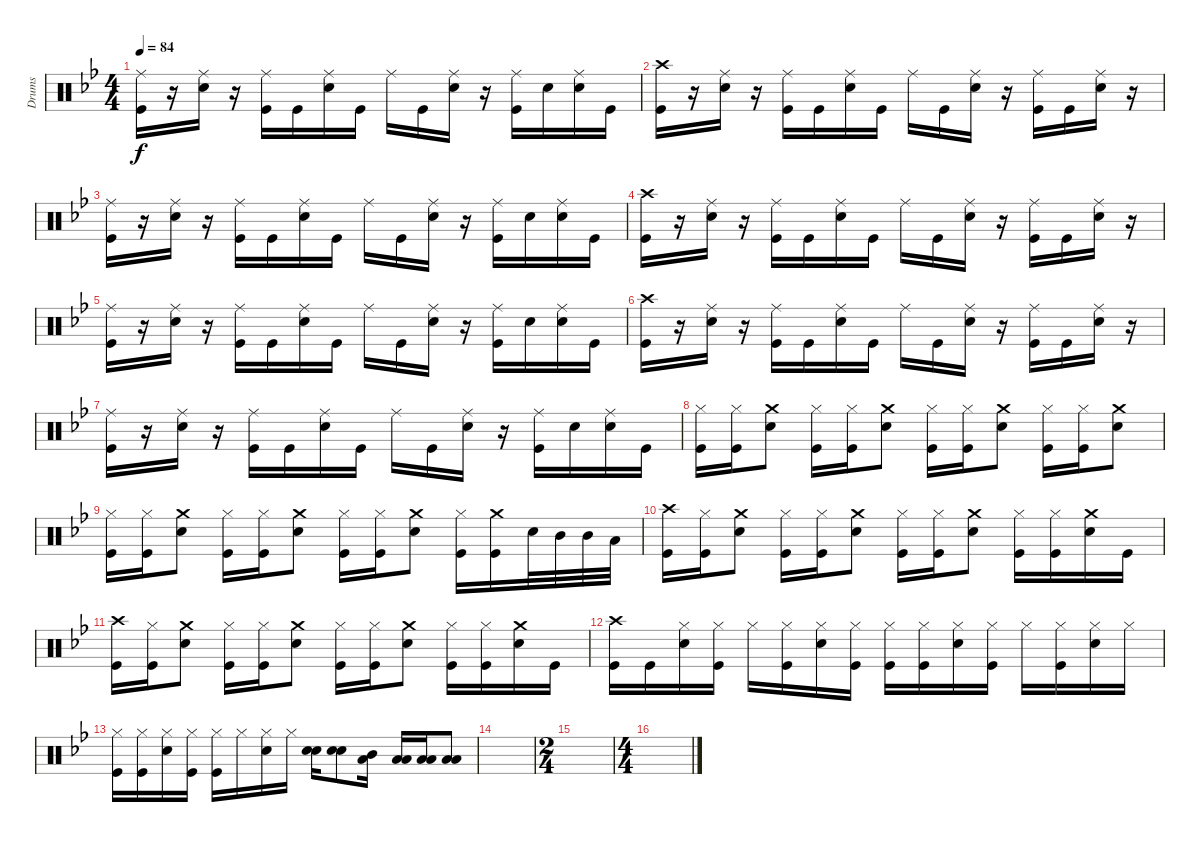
\track ("Drums" "Drums") {instrument percussion}
\staff {score}
\articulation defaults
\ts (4 4)
\tempo 84
\clef neutral
\ks bb
("Ride (middle)" "Kick (hit)").16{dy f} r.16 ("Ride (middle)" "Electric Snare (hit)").16 r.16 ("Ride (middle)" "Kick (hit)").16 "Kick (hit)".16 ("Ride (middle)" "Electric Snare (hit)").16 "Kick (hit)".16 "Ride (middle)".16 "Kick (hit)".16 ("Ride (middle)" "Electric Snare (hit)").16 r.16 ("Ride (middle)" "Kick (hit)").16 "Electric Snare (hit)".16 ("Ride (middle)" "Electric Snare (hit)").16 "Kick (hit)".16 |
("Crash high (hit)" "Kick (hit)").16 r.16 ("Ride (middle)" "Electric Snare (hit)").16 r.16 ("Ride (middle)" "Kick (hit)").16 "Kick (hit)".16 ("Ride (middle)" "Electric Snare (hit)").16 "Kick (hit)".16 "Ride (middle)".16 "Kick (hit)".16 ("Ride (middle)" "Electric Snare (hit)").16 r.16 ("Ride (middle)" "Kick (hit)").16 "Kick (hit)".16 ("Ride (middle)" "Electric Snare (hit)").16 r.16 |
("Ride (middle)" "Kick (hit)").16 r.16 ("Ride (middle)" "Electric Snare (hit)").16 r.16 ("Ride (middle)" "Kick (hit)").16 "Kick (hit)".16 ("Ride (middle)" "Electric Snare (hit)").16 "Kick (hit)".16 "Ride (middle)".16 "Kick (hit)".16 ("Ride (middle)" "Electric Snare (hit)").16 r.16 ("Ride (middle)" "Kick (hit)").16 "Electric Snare (hit)".16 ("Ride (middle)" "Electric Snare (hit)").16 "Kick (hit)".16 |
("Crash high (hit)" "Kick (hit)").16 r.16 ("Ride (middle)" "Electric Snare (hit)").16 r.16 ("Ride (middle)" "Kick (hit)").16 "Kick (hit)".16 ("Ride (middle)" "Electric Snare (hit)").16 "Kick (hit)".16 "Ride (middle)".16 "Kick (hit)".16 ("Ride (middle)" "Electric Snare (hit)").16 r.16 ("Ride (middle)" "Kick (hit)").16 "Kick (hit)".16 ("Ride (middle)" "Electric Snare (hit)").16 r.16 |
("Ride (middle)" "Kick (hit)").16 r.16 ("Ride (middle)" "Electric Snare (hit)").16 r.16 ("Ride (middle)" "Kick (hit)").16 "Kick (hit)".16 ("Ride (middle)" "Electric Snare (hit)").16 "Kick (hit)".16 "Ride (middle)".16 "Kick (hit)".16 ("Ride (middle)" "Electric Snare (hit)").16 r.16 ("Ride (middle)" "Kick (hit)").16 "Electric Snare (hit)".16 ("Ride (middle)" "Electric Snare (hit)").16 "Kick (hit)".16 |
("Crash high (hit)" "Kick (hit)").16 r.16 ("Ride (middle)" "Electric Snare (hit)").16 r.16 ("Ride (middle)" "Kick (hit)").16 "Kick (hit)".16 ("Ride (middle)" "Electric Snare (hit)").16 "Kick (hit)".16 "Ride (middle)".16 "Kick (hit)".16 ("Ride (middle)" "Electric Snare (hit)").16 r.16 ("Ride (middle)" "Kick (hit)").16 "Kick (hit)".16 ("Ride (middle)" "Electric Snare (hit)").16 r.16 |
("Ride (middle)" "Kick (hit)").16 r.16 ("Ride (middle)" "Electric Snare (hit)").16 r.16 ("Ride (middle)" "Kick (hit)").16 "Kick (hit)".16 ("Ride (middle)" "Electric Snare (hit)").16 "Kick (hit)".16 "Ride (middle)".16 "Kick (hit)".16 ("Ride (middle)" "Electric Snare (hit)").16 r.16 ("Ride (middle)" "Kick (hit)").16 "Electric Snare (hit)".16 ("Ride (middle)" "Electric Snare (hit)").16 "Kick (hit)".16 |
("Hi-Hat (closed)" "Kick (hit)").16 ("Hi-Hat (closed)" "Kick (hit)").16 ("Crash medium (hit)" "Electric Snare (hit)").8 ("Hi-Hat (closed)" "Kick (hit)").16 ("Hi-Hat (closed)" "Kick (hit)").16 ("Crash medium (hit)" "Electric Snare (hit)").8 ("Hi-Hat (closed)" "Kick (hit)").16 ("Hi-Hat (closed)" "Kick (hit)").16 ("Crash medium (hit)" "Electric Snare (hit)").8 ("Hi-Hat (closed)" "Kick (hit)").16 ("Hi-Hat (closed)" "Kick (hit)").16 ("Crash medium (hit)" "Electric Snare (hit)").8 |
("Hi-Hat (closed)" "Kick (hit)").16 ("Hi-Hat (closed)" "Kick (hit)").16 ("Crash medium (hit)" "Electric Snare (hit)").8 ("Hi-Hat (closed)" "Kick (hit)").16 ("Hi-Hat (closed)" "Kick (hit)").16 ("Crash medium (hit)" "Electric Snare (hit)").8 ("Hi-Hat (closed)" "Kick (hit)").16 ("Hi-Hat (closed)" "Kick (hit)").16 ("Crash medium (hit)" "Electric Snare (hit)").8 ("Hi-Hat (closed)" "Kick (hit)").16 ("Crash medium (hit)" "Kick (hit)").16 "Electric Snare (hit)".32 "Mid Tom (hit)".32 "Mid Tom (hit)".32 "Low Tom (hit)".32 |
("Crash high (hit)" "Kick (hit)").16 ("Hi-Hat (closed)" "Kick (hit)").16 ("Crash medium (hit)" "Electric Snare (hit)").8 ("Hi-Hat (closed)" "Kick (hit)").16 ("Hi-Hat (closed)" "Kick (hit)").16 ("Crash medium (hit)" "Electric Snare (hit)").8 ("Hi-Hat (closed)" "Kick (hit)").16 ("Hi-Hat (closed)" "Kick (hit)").16 ("Crash medium (hit)" "Electric Snare (hit)").8 ("Hi-Hat (closed)" "Kick (hit)").16 ("Hi-Hat (closed)" "Kick (hit)").16 ("Crash medium (hit)" "Electric Snare (hit)").16 "Kick (hit)".16 |
("Crash high (hit)" "Kick (hit)").16 ("Hi-Hat (closed)" "Kick (hit)").16 ("Crash medium (hit)" "Electric Snare (hit)").8 ("Hi-Hat (closed)" "Kick (hit)").16 ("Hi-Hat (closed)" "Kick (hit)").16 ("Crash medium (hit)" "Electric Snare (hit)").8 ("Hi-Hat (closed)" "Kick (hit)").16 ("Hi-Hat (closed)" "Kick (hit)").16 ("Crash medium (hit)" "Electric Snare (hit)").8 ("Hi-Hat (closed)" "Kick (hit)").16 ("Hi-Hat (closed)" "Kick (hit)").16 ("Crash medium (hit)" "Electric Snare (hit)").16 "Kick (hit)".16 |
("Crash high (hit)" "Kick (hit)").16 "Kick (hit)".16 ("Hi-Hat (closed)" "Electric Snare (hit)").16 ("Hi-Hat (closed)" "Kick (hit)").16 "Hi-Hat (closed)".16 ("Hi-Hat (closed)" "Kick (hit)").16 ("Hi-Hat (closed)" "Electric Snare (hit)").16 ("Hi-Hat (closed)" "Kick (hit)").16 ("Hi-Hat (closed)" "Kick (hit)").16 ("Hi-Hat (closed)" "Kick (hit)").16 ("Hi-Hat (closed)" "Electric Snare (hit)").16 ("Hi-Hat (closed)" "Kick (hit)").16 "Hi-Hat (closed)".16 ("Hi-Hat (closed)" "Kick (hit)").16 ("Hi-Hat (closed)" "Electric Snare (hit)").16 "Hi-Hat (closed)".16 |
("Hi-Hat (closed)" "Kick (hit)").16 ("Hi-Hat (closed)" "Kick (hit)").16 ("Hi-Hat (closed)" "Electric Snare (hit)").16 ("Hi-Hat (closed)" "Kick (hit)").16 ("Hi-Hat (closed)" "Kick (hit)").16 "Hi-Hat (closed)".16 ("Hi-Hat (closed)" "Electric Snare (hit)").16 "Hi-Hat (closed)".16 ("Electric Snare (hit)" "Electric Snare (hit)").16{bd 120} ("Electric Snare (hit)" "Electric Snare (hit)").8{bd 120} ("Low Tom (hit)" "Mid Tom (hit)").16{bd 120} ("Low Tom (hit)" "Low Floor Tom (hit)").16{bd 120} ("Low Floor Tom (hit)" "Low Floor Tom (hit)").16{bd 120} ("Low Floor Tom (hit)" "Low Floor Tom (hit)").8{bd 120} |
|
\ts (2 4)
|
\ts (4 4)
